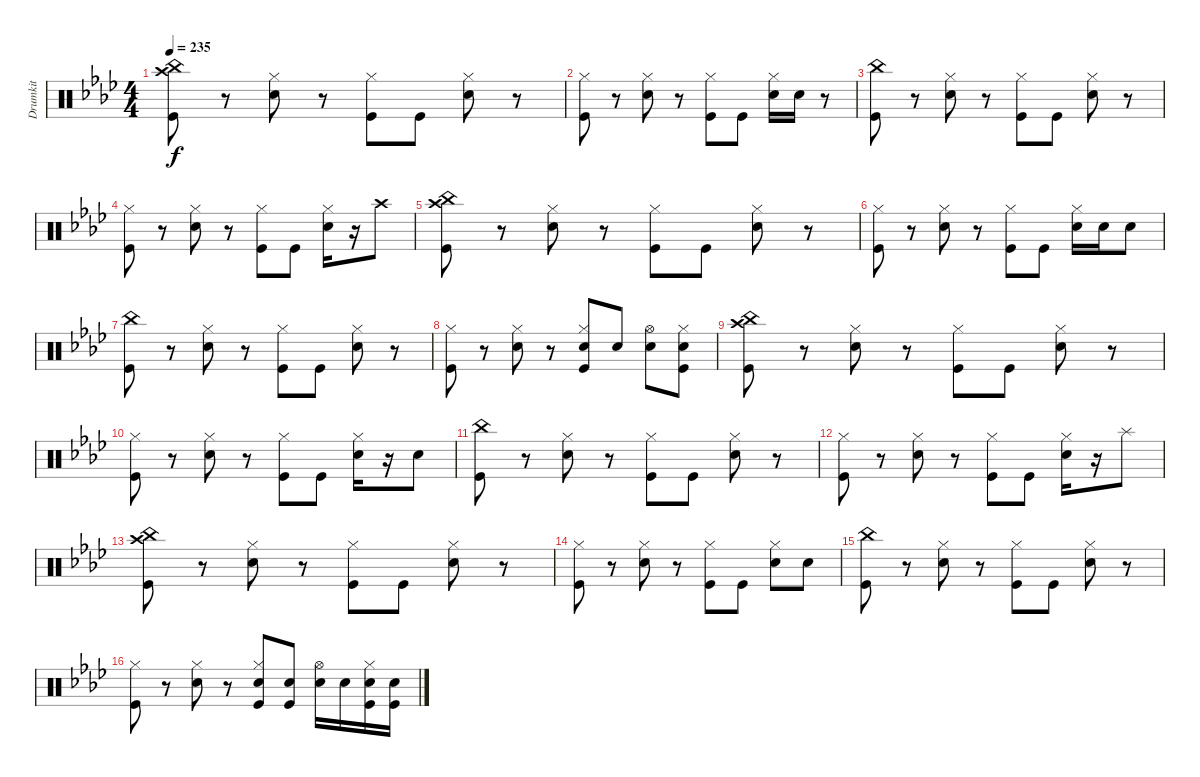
\track ("Drumkit" "Drumkit") {instrument percussion}
\staff {score}
\articulation defaults
\ts (4 4)
\tempo 235
\clef neutral
\ks ab
("Crash high (hit)" "China (hit)" "Kick (hit)").8{dy f} r.8 ("Hi-Hat (closed)" "Electric Snare (hit)").8 r.8 ("Hi-Hat (closed)" "Kick (hit)").8 "Kick (hit)".8 ("Hi-Hat (closed)" "Electric Snare (hit)").8 r.8 |
("Hi-Hat (closed)" "Kick (hit)").8 r.8 ("Hi-Hat (closed)" "Electric Snare (hit)").8 r.8 ("Hi-Hat (closed)" "Kick (hit)").8 "Kick (hit)".8 ("Hi-Hat (closed)" "Electric Snare (hit)").16 "Electric Snare (hit)".16 r.8 |
("China (hit)" "Kick (hit)").8 r.8 ("Hi-Hat (closed)" "Electric Snare (hit)").8 r.8 ("Hi-Hat (closed)" "Kick (hit)").8 "Kick (hit)".8 ("Hi-Hat (closed)" "Electric Snare (hit)").8 r.8 |
("Hi-Hat (closed)" "Kick (hit)").8 r.8 ("Hi-Hat (closed)" "Electric Snare (hit)").8 r.8 ("Hi-Hat (closed)" "Kick (hit)").8 "Kick (hit)".8 ("Hi-Hat (closed)" "Electric Snare (hit)").16 r.16 "Crash high (hit)".8 |
("Crash high (hit)" "China (hit)" "Kick (hit)").8 r.8 ("Hi-Hat (closed)" "Electric Snare (hit)").8 r.8 ("Hi-Hat (closed)" "Kick (hit)").8 "Kick (hit)".8 ("Hi-Hat (closed)" "Electric Snare (hit)").8 r.8 |
("Hi-Hat (closed)" "Kick (hit)").8 r.8 ("Hi-Hat (closed)" "Electric Snare (hit)").8 r.8 ("Hi-Hat (closed)" "Kick (hit)").8 "Kick (hit)".8 ("Hi-Hat (closed)" "Electric Snare (hit)").16 "Electric Snare (hit)".16 "Electric Snare (hit)".8 |
("China (hit)" "Kick (hit)").8 r.8 ("Hi-Hat (closed)" "Electric Snare (hit)").8 r.8 ("Hi-Hat (closed)" "Kick (hit)").8 "Kick (hit)".8 ("Hi-Hat (closed)" "Electric Snare (hit)").8 r.8 |
("Hi-Hat (closed)" "Kick (hit)").8 r.8 ("Hi-Hat (closed)" "Electric Snare (hit)").8 r.8 ("Hi-Hat (closed)" "Electric Snare (hit)" "Kick (hit)").8 "Electric Snare (hit)".8 ("Hi-Hat (open)" "Electric Snare (hit)").8 ("Hi-Hat (closed)" "Electric Snare (hit)" "Kick (hit)").8 |
("Crash high (hit)" "China (hit)" "Kick (hit)").8 r.8 ("Hi-Hat (closed)" "Electric Snare (hit)").8 r.8 ("Hi-Hat (closed)" "Kick (hit)").8 "Kick (hit)".8 ("Hi-Hat (closed)" "Electric Snare (hit)").8 r.8 |
("Hi-Hat (closed)" "Kick (hit)").8 r.8 ("Hi-Hat (closed)" "Electric Snare (hit)").8 r.8 ("Hi-Hat (closed)" "Kick (hit)").8 "Kick (hit)".8 ("Hi-Hat (closed)" "Electric Snare (hit)").16 r.16 "Electric Snare (hit)".8 |
("China (hit)" "Kick (hit)").8 r.8 ("Hi-Hat (closed)" "Electric Snare (hit)").8 r.8 ("Hi-Hat (closed)" "Kick (hit)").8 "Kick (hit)".8 ("Hi-Hat (closed)" "Electric Snare (hit)").8 r.8 |
("Hi-Hat (closed)" "Kick (hit)").8 r.8 ("Hi-Hat (closed)" "Electric Snare (hit)").8 r.8 ("Hi-Hat (closed)" "Kick (hit)").8 "Kick (hit)".8 ("Hi-Hat (closed)" "Electric Snare (hit)").16 r.16 "Splash (hit)".8 |
("Crash high (hit)" "China (hit)" "Kick (hit)").8 r.8 ("Hi-Hat (closed)" "Electric Snare (hit)").8 r.8 ("Hi-Hat (closed)" "Kick (hit)").8 "Kick (hit)".8 ("Hi-Hat (closed)" "Electric Snare (hit)").8 r.8 |
("Hi-Hat (closed)" "Kick (hit)").8 r.8 ("Hi-Hat (closed)" "Electric Snare (hit)").8 r.8 ("Hi-Hat (closed)" "Kick (hit)").8 "Kick (hit)".8 ("Hi-Hat (closed)" "Electric Snare (hit)").8 "Electric Snare (hit)".8 |
("China (hit)" "Kick (hit)").8 r.8 ("Hi-Hat (closed)" "Electric Snare (hit)").8 r.8 ("Hi-Hat (closed)" "Kick (hit)").8 "Kick (hit)".8 ("Hi-Hat (closed)" "Electric Snare (hit)").8 r.8 |
("Hi-Hat (closed)" "Kick (hit)").8 r.8 ("Hi-Hat (closed)" "Electric Snare (hit)").8 r.8 ("Hi-Hat (closed)" "Electric Snare (hit)" "Kick (hit)").8 ("Electric Snare (hit)" "Kick (hit)").8 ("Hi-Hat (open)" "Electric Snare (hit)").16 "Electric Snare (hit)".16 ("Hi-Hat (closed)" "Electric Snare (hit)" "Kick (hit)").16 ("Electric Snare (hit)" "Kick (hit)").16
